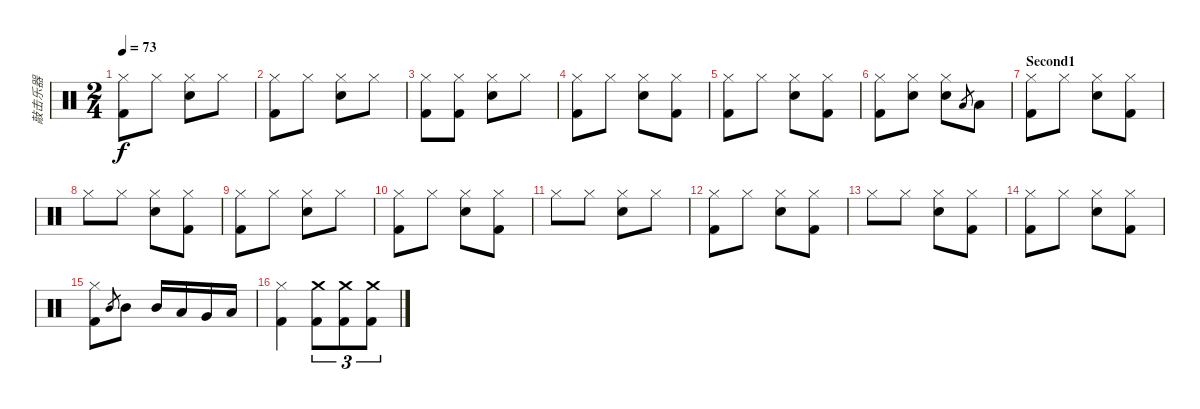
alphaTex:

\track ("敲击乐器" "敲击乐器") {instrument percussion}
\staff {score}
\articulation defaults
\ts (2 4)
\tempo 73
\clef neutral
\ks c
("Hi-Hat (closed)" "Kick (hit) 2").8{dy f} "Hi-Hat (closed)".8 ("Hi-Hat (closed)" "Electric Snare (hit)").8 "Hi-Hat (closed)".8 |
("Hi-Hat (closed)" "Kick (hit) 2").8 "Hi-Hat (closed)".8 ("Hi-Hat (closed)" "Electric Snare (hit)").8 "Hi-Hat (closed)".8 |
("Hi-Hat (closed)" "Kick (hit) 2").8 ("Hi-Hat (closed)" "Kick (hit) 2").8 ("Hi-Hat (closed)" "Electric Snare (hit)").8 "Hi-Hat (closed)".8 |
("Hi-Hat (closed)" "Kick (hit) 2").8 "Hi-Hat (closed)".8 ("Hi-Hat (closed)" "Electric Snare (hit)").8 ("Hi-Hat (closed)" "Kick (hit) 2").8 |
("Hi-Hat (closed)" "Kick (hit) 2").8 "Hi-Hat (closed)".8 ("Hi-Hat (closed)" "Electric Snare (hit)").8 ("Hi-Hat (closed)" "Kick (hit) 2").8 |
("Hi-Hat (closed)" "Kick (hit) 2").8 ("Hi-Hat (closed)" "Electric Snare (hit)").8 ("Hi-Hat (closed)" "Electric Snare (hit)").8 "Low Tom (hit)".8{gr} "Low Tom (hit)".8 |
\section ("" "Second1")
("Hi-Hat (closed)" "Kick (hit) 2").8 "Hi-Hat (closed)".8 ("Hi-Hat (closed)" "Electric Snare (hit)").8 ("Hi-Hat (closed)" "Kick (hit) 2").8 |
"Hi-Hat (closed)".8 "Hi-Hat (closed)".8 ("Hi-Hat (closed)" "Electric Snare (hit)").8 ("Hi-Hat (closed)" "Kick (hit) 2").8 |
("Hi-Hat (closed)" "Kick (hit) 2").8 "Hi-Hat (closed)".8 ("Hi-Hat (closed)" "Electric Snare (hit)").8 "Hi-Hat (closed)".8 |
("Hi-Hat (closed)" "Kick (hit) 2").8 "Hi-Hat (closed)".8 ("Hi-Hat (closed)" "Electric Snare (hit)").8 ("Hi-Hat (closed)" "Kick (hit) 2").8 |
"Hi-Hat (closed)".8 "Hi-Hat (closed)".8 ("Hi-Hat (closed)" "Electric Snare (hit)").8 "Hi-Hat (closed)".8 |
("Hi-Hat (closed)" "Kick (hit) 2").8 "Hi-Hat (closed)".8 ("Hi-Hat (closed)" "Electric Snare (hit)").8 ("Hi-Hat (closed)" "Kick (hit) 2").8 |
"Hi-Hat (closed)".8 "Hi-Hat (closed)".8 ("Hi-Hat (closed)" "Electric Snare (hit)").8 ("Hi-Hat (closed)" "Kick (hit) 2").8 |
("Hi-Hat (closed)" "Kick (hit) 2").8 "Hi-Hat (closed)".8 ("Hi-Hat (closed)" "Electric Snare (hit)").8 ("Hi-Hat (closed)" "Kick (hit) 2").8 |
("Hi-Hat (closed)" "Kick (hit) 2").8 "Mid Tom (hit)".8{gr} "Mid Tom (hit)".8 "Mid Tom (hit)".16 "Low Tom (hit)".16 "Very Low Tom (hit)".16 "Low Floor Tom (hit)".16 |
("Hi-Hat (closed)" "Kick (hit) 2").4 ("Crash medium (hit)" "Kick (hit) 2").8{tu (3 2)} ("Crash medium (hit)" "Kick (hit) 2").8{tu (3 2)} ("Crash medium (hit)" "Kick (hit) 2").8{tu (3 2)}
